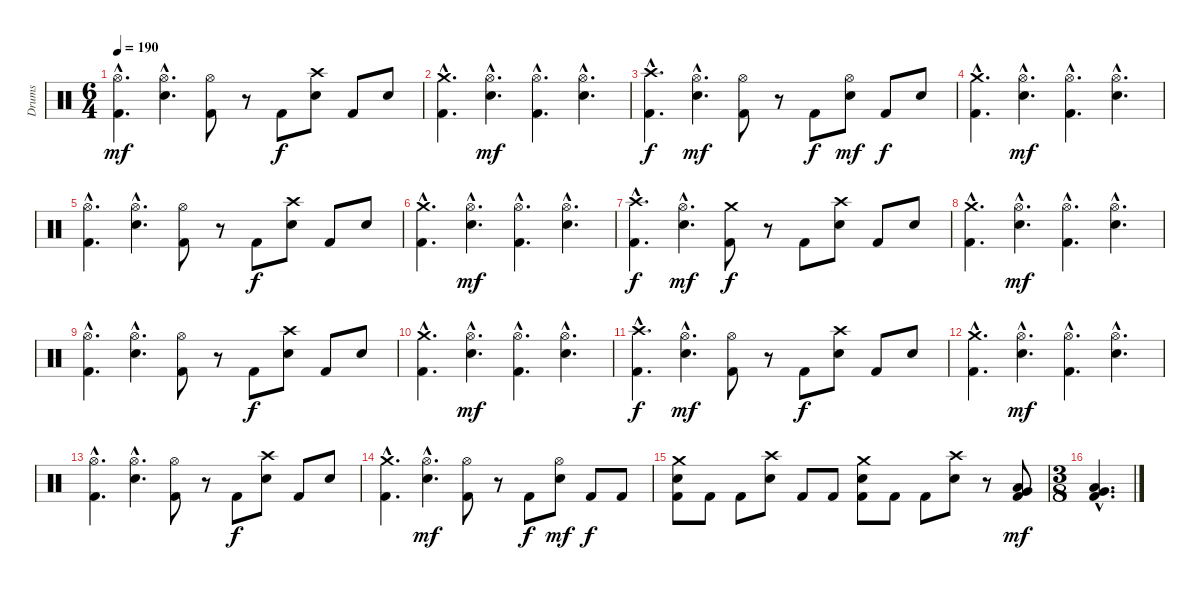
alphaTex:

\track ("Drums" "Drums") {instrument percussion}
\staff {score}
\articulation defaults
\ts (6 4)
\tempo 190
\clef neutral
\ks c
("Hi-Hat (open)"{hac} "Kick (hit) 2"{hac}).4{d dy mf} ("Hi-Hat (open)"{hac} "Snare (hit) 2"{hac}).4{d} ("Hi-Hat (open)" "Kick (hit) 2").8 r.8 "Kick (hit) 2".8{dy f} ("Crash high (hit)" "Snare (hit) 2").8 "Kick (hit) 2".8 "Snare (hit) 2".8 |
("Crash medium (hit)"{hac} "Kick (hit) 2"{hac}).4{d} ("Hi-Hat (open)"{hac} "Snare (hit) 2"{hac}).4{d dy mf} ("Hi-Hat (open)"{hac} "Kick (hit) 2"{hac}).4{d} ("Hi-Hat (open)"{hac} "Snare (hit) 2"{hac}).4{d} |
("Crash high (hit)"{hac} "Kick (hit) 2"{hac}).4{d dy f} ("Hi-Hat (open)"{hac} "Snare (hit) 2"{hac}).4{d dy mf} ("Hi-Hat (open)" "Kick (hit) 2").8 r.8 "Kick (hit) 2".8{dy f} ("Hi-Hat (open)" "Snare (hit) 2").8{dy mf} "Kick (hit) 2".8{dy f} "Snare (hit) 2".8 |
("Crash medium (hit)"{hac} "Kick (hit) 2"{hac}).4{d} ("Hi-Hat (open)"{hac} "Snare (hit) 2"{hac}).4{d dy mf} ("Hi-Hat (open)"{hac} "Kick (hit) 2"{hac}).4{d} ("Hi-Hat (open)"{hac} "Snare (hit) 2"{hac}).4{d} |
("Hi-Hat (open)"{hac} "Kick (hit) 2"{hac}).4{d} ("Hi-Hat (open)"{hac} "Snare (hit) 2"{hac}).4{d} ("Hi-Hat (open)" "Kick (hit) 2").8 r.8 "Kick (hit) 2".8{dy f} ("Crash high (hit)" "Snare (hit) 2").8 "Kick (hit) 2".8 "Snare (hit) 2".8 |
("Crash medium (hit)"{hac} "Kick (hit) 2"{hac}).4{d} ("Hi-Hat (open)"{hac} "Snare (hit) 2"{hac}).4{d dy mf} ("Hi-Hat (open)"{hac} "Kick (hit) 2"{hac}).4{d} ("Hi-Hat (open)"{hac} "Snare (hit) 2"{hac}).4{d} |
("Crash high (hit)"{hac} "Kick (hit) 2"{hac}).4{d dy f} ("Hi-Hat (open)"{hac} "Snare (hit) 2"{hac}).4{d dy mf} ("Crash medium (hit)" "Kick (hit) 2").8{dy f} r.8 "Kick (hit) 2".8 ("Crash high (hit)" "Snare (hit) 2").8 "Kick (hit) 2".8 "Snare (hit) 2".8 |
("Crash medium (hit)"{hac} "Kick (hit) 2"{hac}).4{d} ("Hi-Hat (open)"{hac} "Snare (hit) 2"{hac}).4{d dy mf} ("Hi-Hat (open)"{hac} "Kick (hit) 2"{hac}).4{d} ("Hi-Hat (open)"{hac} "Snare (hit) 2"{hac}).4{d} |
("Hi-Hat (open)"{hac} "Kick (hit) 2"{hac}).4{d} ("Hi-Hat (open)"{hac} "Snare (hit) 2"{hac}).4{d} ("Hi-Hat (open)" "Kick (hit) 2").8 r.8 "Kick (hit) 2".8{dy f} ("Crash high (hit)" "Snare (hit) 2").8 "Kick (hit) 2".8 "Snare (hit) 2".8 |
("Crash medium (hit)"{hac} "Kick (hit) 2"{hac}).4{d} ("Hi-Hat (open)"{hac} "Snare (hit) 2"{hac}).4{d dy mf} ("Hi-Hat (open)"{hac} "Kick (hit) 2"{hac}).4{d} ("Hi-Hat (open)"{hac} "Snare (hit) 2"{hac}).4{d} |
("Crash high (hit)"{hac} "Kick (hit) 2"{hac}).4{d dy f} ("Hi-Hat (open)"{hac} "Snare (hit) 2"{hac}).4{d dy mf} ("Hi-Hat (open)" "Kick (hit) 2").8 r.8 "Kick (hit) 2".8{dy f} ("Crash high (hit)" "Snare (hit) 2").8 "Kick (hit) 2".8 "Snare (hit) 2".8 |
("Crash medium (hit)"{hac} "Kick (hit) 2"{hac}).4{d} ("Hi-Hat (open)"{hac} "Snare (hit) 2"{hac}).4{d dy mf} ("Hi-Hat (open)"{hac} "Kick (hit) 2"{hac}).4{d} ("Hi-Hat (open)"{hac} "Snare (hit) 2"{hac}).4{d} |
("Hi-Hat (open)"{hac} "Kick (hit) 2"{hac}).4{d} ("Hi-Hat (open)"{hac} "Snare (hit) 2"{hac}).4{d} ("Hi-Hat (open)" "Kick (hit) 2").8 r.8 "Kick (hit) 2".8{dy f} ("Crash high (hit)" "Snare (hit) 2").8 "Kick (hit) 2".8 "Snare (hit) 2".8 |
("Crash medium (hit)"{hac} "Kick (hit) 2"{hac}).4{d} ("Hi-Hat (open)"{hac} "Snare (hit) 2"{hac}).4{d dy mf} ("Hi-Hat (open)" "Kick (hit) 2").8 r.8 "Kick (hit) 2".8{dy f} ("Hi-Hat (open)" "Snare (hit) 2").8{dy mf} "Kick (hit) 2".8{dy f} "Kick (hit) 2".8 |
("Crash medium (hit)" "Snare (hit) 2" "Kick (hit) 2").8 "Kick (hit) 2".8 "Kick (hit) 2".8 ("Crash high (hit)" "Snare (hit) 2").8 "Kick (hit) 2".8 "Kick (hit) 2".8 ("Crash medium (hit)" "Snare (hit) 2" "Kick (hit) 2").8 "Kick (hit) 2".8 "Kick (hit) 2".8 ("Crash high (hit)" "Snare (hit) 2").8 r.8 ("Very Low Tom (hit)" "Low Floor Tom (hit)" "Kick (hit) 2").8{dy mf} |
\ts (3 8)
("Very Low Tom (hit)"{hac} "Low Floor Tom (hit)"{hac} "Kick (hit) 2"{hac}).4{d}
